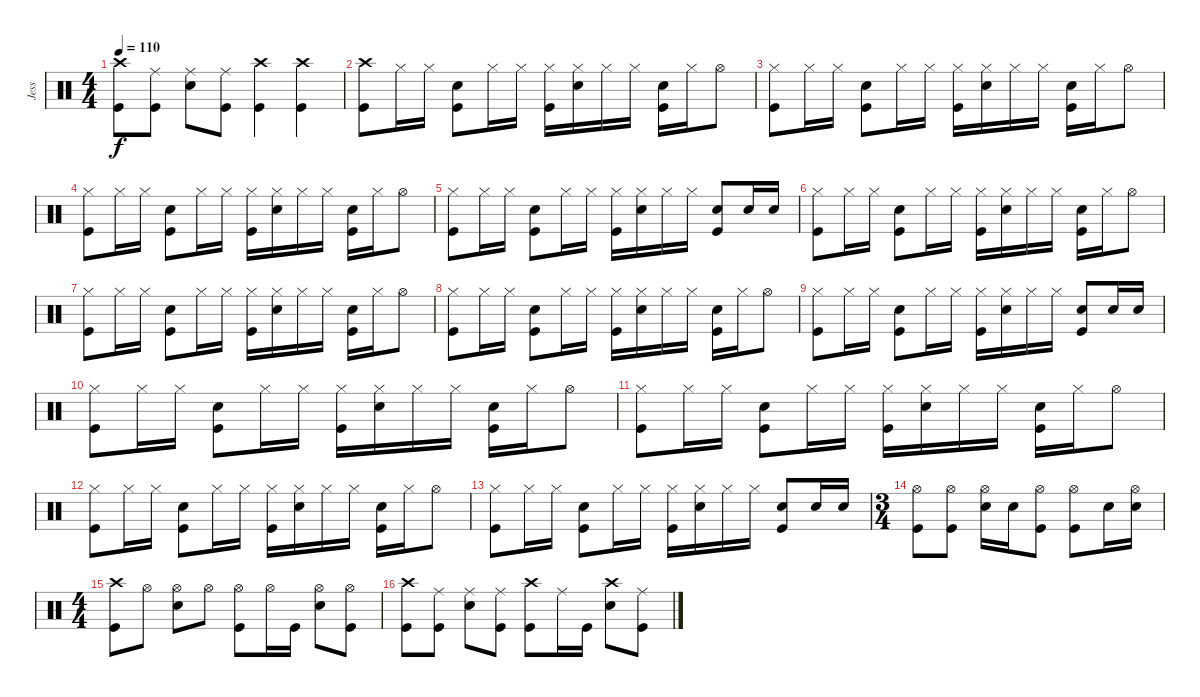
\track ("Jess" "Jess") {instrument percussion}
\staff {score}
\articulation defaults
\ts (4 4)
\tempo 110
\clef neutral
\ks c
("Crash high (hit)" "Kick (hit)").8{dy f} ("Ride (middle)" "Kick (hit)").8 ("Ride (middle)" "Electric Snare (hit)").8 ("Ride (middle)" "Kick (hit)").8 ("Crash high (hit)" "Kick (hit)").4 ("Crash high (hit)" "Kick (hit)").4 |
("Crash high (hit)" "Kick (hit)").8 "Hi-Hat (closed)".16 "Hi-Hat (closed)".16 ("Electric Snare (hit)" "Kick (hit)").8 "Hi-Hat (closed)".16 "Hi-Hat (closed)".16 ("Hi-Hat (closed)" "Kick (hit)").16 ("Hi-Hat (closed)" "Electric Snare (hit)").16 "Hi-Hat (closed)".16 "Hi-Hat (closed)".16 ("Electric Snare (hit)" "Kick (hit)").16 "Hi-Hat (closed)".16 "Hi-Hat (open)".8 |
("Hi-Hat (closed)" "Kick (hit)").8 "Hi-Hat (closed)".16 "Hi-Hat (closed)".16 ("Electric Snare (hit)" "Kick (hit)").8 "Hi-Hat (closed)".16 "Hi-Hat (closed)".16 ("Hi-Hat (closed)" "Kick (hit)").16 ("Hi-Hat (closed)" "Electric Snare (hit)").16 "Hi-Hat (closed)".16 "Hi-Hat (closed)".16 ("Electric Snare (hit)" "Kick (hit)").16 "Hi-Hat (closed)".16 "Hi-Hat (open)".8 |
("Hi-Hat (closed)" "Kick (hit)").8 "Hi-Hat (closed)".16 "Hi-Hat (closed)".16 ("Electric Snare (hit)" "Kick (hit)").8 "Hi-Hat (closed)".16 "Hi-Hat (closed)".16 ("Hi-Hat (closed)" "Kick (hit)").16 ("Hi-Hat (closed)" "Electric Snare (hit)").16 "Hi-Hat (closed)".16 "Hi-Hat (closed)".16 ("Electric Snare (hit)" "Kick (hit)").16 "Hi-Hat (closed)".16 "Hi-Hat (open)".8 |
("Hi-Hat (closed)" "Kick (hit)").8 "Hi-Hat (closed)".16 "Hi-Hat (closed)".16 ("Electric Snare (hit)" "Kick (hit)").8 "Hi-Hat (closed)".16 "Hi-Hat (closed)".16 ("Hi-Hat (closed)" "Kick (hit)").16 ("Hi-Hat (closed)" "Electric Snare (hit)").16 "Hi-Hat (closed)".16 "Hi-Hat (closed)".16 ("Electric Snare (hit)" "Kick (hit)").8 "Electric Snare (hit)".16 "Electric Snare (hit)".16 |
("Hi-Hat (closed)" "Kick (hit)").8 "Hi-Hat (closed)".16 "Hi-Hat (closed)".16 ("Electric Snare (hit)" "Kick (hit)").8 "Hi-Hat (closed)".16 "Hi-Hat (closed)".16 ("Hi-Hat (closed)" "Kick (hit)").16 ("Hi-Hat (closed)" "Electric Snare (hit)").16 "Hi-Hat (closed)".16 "Hi-Hat (closed)".16 ("Electric Snare (hit)" "Kick (hit)").16 "Hi-Hat (closed)".16 "Hi-Hat (open)".8 |
("Hi-Hat (closed)" "Kick (hit)").8 "Hi-Hat (closed)".16 "Hi-Hat (closed)".16 ("Electric Snare (hit)" "Kick (hit)").8 "Hi-Hat (closed)".16 "Hi-Hat (closed)".16 ("Hi-Hat (closed)" "Kick (hit)").16 ("Hi-Hat (closed)" "Electric Snare (hit)").16 "Hi-Hat (closed)".16 "Hi-Hat (closed)".16 ("Electric Snare (hit)" "Kick (hit)").16 "Hi-Hat (closed)".16 "Hi-Hat (open)".8 |
("Hi-Hat (closed)" "Kick (hit)").8 "Hi-Hat (closed)".16 "Hi-Hat (closed)".16 ("Electric Snare (hit)" "Kick (hit)").8 "Hi-Hat (closed)".16 "Hi-Hat (closed)".16 ("Hi-Hat (closed)" "Kick (hit)").16 ("Hi-Hat (closed)" "Electric Snare (hit)").16 "Hi-Hat (closed)".16 "Hi-Hat (closed)".16 ("Electric Snare (hit)" "Kick (hit)").16 "Hi-Hat (closed)".16 "Hi-Hat (open)".8 |
("Hi-Hat (closed)" "Kick (hit)").8 "Hi-Hat (closed)".16 "Hi-Hat (closed)".16 ("Electric Snare (hit)" "Kick (hit)").8 "Hi-Hat (closed)".16 "Hi-Hat (closed)".16 ("Hi-Hat (closed)" "Kick (hit)").16 ("Hi-Hat (closed)" "Electric Snare (hit)").16 "Hi-Hat (closed)".16 "Hi-Hat (closed)".16 ("Electric Snare (hit)" "Kick (hit)").8 "Electric Snare (hit)".16 "Electric Snare (hit)".16 |
("Hi-Hat (closed)" "Kick (hit)").8 "Hi-Hat (closed)".16 "Hi-Hat (closed)".16 ("Electric Snare (hit)" "Kick (hit)").8 "Hi-Hat (closed)".16 "Hi-Hat (closed)".16 ("Hi-Hat (closed)" "Kick (hit)").16 ("Hi-Hat (closed)" "Electric Snare (hit)").16 "Hi-Hat (closed)".16 "Hi-Hat (closed)".16 ("Electric Snare (hit)" "Kick (hit)").16 "Hi-Hat (closed)".16 "Hi-Hat (open)".8 |
("Hi-Hat (closed)" "Kick (hit)").8 "Hi-Hat (closed)".16 "Hi-Hat (closed)".16 ("Electric Snare (hit)" "Kick (hit)").8 "Hi-Hat (closed)".16 "Hi-Hat (closed)".16 ("Hi-Hat (closed)" "Kick (hit)").16 ("Hi-Hat (closed)" "Electric Snare (hit)").16 "Hi-Hat (closed)".16 "Hi-Hat (closed)".16 ("Electric Snare (hit)" "Kick (hit)").16 "Hi-Hat (closed)".16 "Hi-Hat (open)".8 |
("Hi-Hat (closed)" "Kick (hit)").8 "Hi-Hat (closed)".16 "Hi-Hat (closed)".16 ("Electric Snare (hit)" "Kick (hit)").8 "Hi-Hat (closed)".16 "Hi-Hat (closed)".16 ("Hi-Hat (closed)" "Kick (hit)").16 ("Hi-Hat (closed)" "Electric Snare (hit)").16 "Hi-Hat (closed)".16 "Hi-Hat (closed)".16 ("Electric Snare (hit)" "Kick (hit)").16 "Hi-Hat (closed)".16 "Hi-Hat (open)".8 |
("Hi-Hat (closed)" "Kick (hit)").8 "Hi-Hat (closed)".16 "Hi-Hat (closed)".16 ("Electric Snare (hit)" "Kick (hit)").8 "Hi-Hat (closed)".16 "Hi-Hat (closed)".16 ("Hi-Hat (closed)" "Kick (hit)").16 ("Hi-Hat (closed)" "Electric Snare (hit)").16 "Hi-Hat (closed)".16 "Hi-Hat (closed)".16 ("Electric Snare (hit)" "Kick (hit)").8 "Electric Snare (hit)".16 "Electric Snare (hit)".16 |
\ts (3 4)
("Hi-Hat (open)" "Kick (hit)").8 ("Hi-Hat (open)" "Kick (hit)").8 ("Hi-Hat (open)" "Electric Snare (hit)").16 "Electric Snare (hit)".16 ("Hi-Hat (open)" "Kick (hit)").8 ("Hi-Hat (open)" "Kick (hit)").8 "Electric Snare (hit)".16 ("Hi-Hat (open)" "Electric Snare (hit)").16 |
\ts (4 4)
("Crash high (hit)" "Kick (hit)").8 "Hi-Hat (open)".8 ("Hi-Hat (open)" "Electric Snare (hit)").8 "Hi-Hat (open)".8 ("Hi-Hat (open)" "Kick (hit)").8 "Hi-Hat (open)".16 "Kick (hit)".16 ("Hi-Hat (open)" "Electric Snare (hit)").8 ("Hi-Hat (open)" "Kick (hit)").8 |
("Crash high (hit)" "Kick (hit)").8 ("Ride (middle)" "Kick (hit)").8 ("Ride (middle)" "Electric Snare (hit)").8 ("Ride (middle)" "Kick (hit)").8 ("Crash high (hit)" "Kick (hit)").8 "Ride (middle)".16 "Kick (hit)".16 ("Crash high (hit)" "Electric Snare (hit)").8 ("Ride (middle)" "Kick (hit)").8
